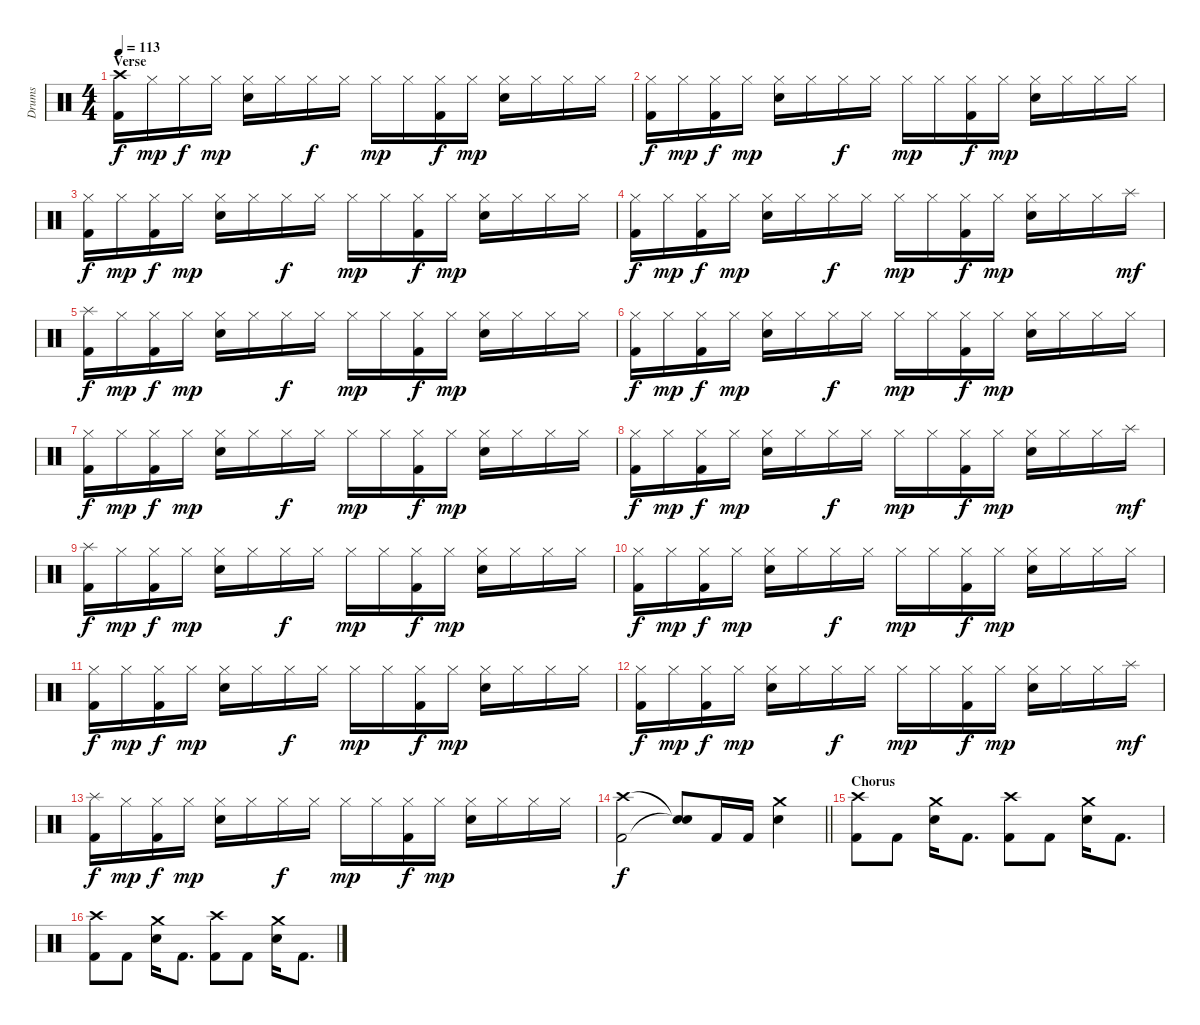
\track ("Drums" "Drums") {instrument percussion}
\staff {score}
\articulation defaults
\ts (4 4)
\section ("" "Verse")
\tempo 113
\clef neutral
\ks c
("Kick (hit) 2" "Crash high (hit)").16{dy f} "Hi-Hat (closed)".16{dy mp} "Hi-Hat (closed)".16{dy f} "Hi-Hat (closed)".16{dy mp} ("Hi-Hat (closed)" "Electric Snare (hit)").16 "Hi-Hat (closed)".16 "Hi-Hat (closed)".16{dy f} "Hi-Hat (closed)".16 "Hi-Hat (closed)".16{dy mp} "Hi-Hat (closed)".16 ("Kick (hit) 2" "Hi-Hat (closed)").16{dy f} "Hi-Hat (closed)".16{dy mp} ("Hi-Hat (closed)" "Electric Snare (hit)").16 "Hi-Hat (closed)".16 "Hi-Hat (closed)".16 "Hi-Hat (closed)".16 |
("Kick (hit) 2" "Hi-Hat (closed)").16{dy f} "Hi-Hat (closed)".16{dy mp} ("Kick (hit) 2" "Hi-Hat (closed)").16{dy f} "Hi-Hat (closed)".16{dy mp} ("Hi-Hat (closed)" "Electric Snare (hit)").16 "Hi-Hat (closed)".16 "Hi-Hat (closed)".16{dy f} "Hi-Hat (closed)".16 "Hi-Hat (closed)".16{dy mp} "Hi-Hat (closed)".16 ("Kick (hit) 2" "Hi-Hat (closed)").16{dy f} "Hi-Hat (closed)".16{dy mp} ("Hi-Hat (closed)" "Electric Snare (hit)").16 "Hi-Hat (closed)".16 "Hi-Hat (closed)".16 "Hi-Hat (closed)".16 |
("Kick (hit) 2" "Hi-Hat (closed)").16{dy f} "Hi-Hat (closed)".16{dy mp} ("Kick (hit) 2" "Hi-Hat (closed)").16{dy f} "Hi-Hat (closed)".16{dy mp} ("Hi-Hat (closed)" "Electric Snare (hit)").16 "Hi-Hat (closed)".16 "Hi-Hat (closed)".16{dy f} "Hi-Hat (closed)".16 "Hi-Hat (closed)".16{dy mp} "Hi-Hat (closed)".16 ("Kick (hit) 2" "Hi-Hat (closed)").16{dy f} "Hi-Hat (closed)".16{dy mp} ("Hi-Hat (closed)" "Electric Snare (hit)").16 "Hi-Hat (closed)".16 "Hi-Hat (closed)".16 "Hi-Hat (closed)".16 |
("Kick (hit) 2" "Hi-Hat (closed)").16{dy f} "Hi-Hat (closed)".16{dy mp} ("Kick (hit) 2" "Hi-Hat (closed)").16{dy f} "Hi-Hat (closed)".16{dy mp} ("Hi-Hat (closed)" "Electric Snare (hit)").16 "Hi-Hat (closed)".16 "Hi-Hat (closed)".16{dy f} "Hi-Hat (closed)".16 "Hi-Hat (closed)".16{dy mp} "Hi-Hat (closed)".16 ("Kick (hit) 2" "Hi-Hat (closed)").16{dy f} "Hi-Hat (closed)".16{dy mp} ("Hi-Hat (closed)" "Electric Snare (hit)").16 "Hi-Hat (closed)".16 "Hi-Hat (closed)".16 "Splash (hit)".16{dy mf} |
("Kick (hit) 2" "Splash (hit)").16{dy f} "Hi-Hat (closed)".16{dy mp} ("Kick (hit) 2" "Hi-Hat (closed)").16{dy f} "Hi-Hat (closed)".16{dy mp} ("Hi-Hat (closed)" "Electric Snare (hit)").16 "Hi-Hat (closed)".16 "Hi-Hat (closed)".16{dy f} "Hi-Hat (closed)".16 "Hi-Hat (closed)".16{dy mp} "Hi-Hat (closed)".16 ("Kick (hit) 2" "Hi-Hat (closed)").16{dy f} "Hi-Hat (closed)".16{dy mp} ("Hi-Hat (closed)" "Electric Snare (hit)").16 "Hi-Hat (closed)".16 "Hi-Hat (closed)".16 "Hi-Hat (closed)".16 |
("Kick (hit) 2" "Hi-Hat (closed)").16{dy f} "Hi-Hat (closed)".16{dy mp} ("Kick (hit) 2" "Hi-Hat (closed)").16{dy f} "Hi-Hat (closed)".16{dy mp} ("Hi-Hat (closed)" "Electric Snare (hit)").16 "Hi-Hat (closed)".16 "Hi-Hat (closed)".16{dy f} "Hi-Hat (closed)".16 "Hi-Hat (closed)".16{dy mp} "Hi-Hat (closed)".16 ("Kick (hit) 2" "Hi-Hat (closed)").16{dy f} "Hi-Hat (closed)".16{dy mp} ("Hi-Hat (closed)" "Electric Snare (hit)").16 "Hi-Hat (closed)".16 "Hi-Hat (closed)".16 "Hi-Hat (closed)".16 |
("Kick (hit) 2" "Hi-Hat (closed)").16{dy f} "Hi-Hat (closed)".16{dy mp} ("Kick (hit) 2" "Hi-Hat (closed)").16{dy f} "Hi-Hat (closed)".16{dy mp} ("Hi-Hat (closed)" "Electric Snare (hit)").16 "Hi-Hat (closed)".16 "Hi-Hat (closed)".16{dy f} "Hi-Hat (closed)".16 "Hi-Hat (closed)".16{dy mp} "Hi-Hat (closed)".16 ("Kick (hit) 2" "Hi-Hat (closed)").16{dy f} "Hi-Hat (closed)".16{dy mp} ("Hi-Hat (closed)" "Electric Snare (hit)").16 "Hi-Hat (closed)".16 "Hi-Hat (closed)".16 "Hi-Hat (closed)".16 |
("Kick (hit) 2" "Hi-Hat (closed)").16{dy f} "Hi-Hat (closed)".16{dy mp} ("Kick (hit) 2" "Hi-Hat (closed)").16{dy f} "Hi-Hat (closed)".16{dy mp} ("Hi-Hat (closed)" "Electric Snare (hit)").16 "Hi-Hat (closed)".16 "Hi-Hat (closed)".16{dy f} "Hi-Hat (closed)".16 "Hi-Hat (closed)".16{dy mp} "Hi-Hat (closed)".16 ("Kick (hit) 2" "Hi-Hat (closed)").16{dy f} "Hi-Hat (closed)".16{dy mp} ("Hi-Hat (closed)" "Electric Snare (hit)").16 "Hi-Hat (closed)".16 "Hi-Hat (closed)".16 "Splash (hit)".16{dy mf} |
("Kick (hit) 2" "Splash (hit)").16{dy f} "Hi-Hat (closed)".16{dy mp} ("Kick (hit) 2" "Hi-Hat (closed)").16{dy f} "Hi-Hat (closed)".16{dy mp} ("Hi-Hat (closed)" "Electric Snare (hit)").16 "Hi-Hat (closed)".16 "Hi-Hat (closed)".16{dy f} "Hi-Hat (closed)".16 "Hi-Hat (closed)".16{dy mp} "Hi-Hat (closed)".16 ("Kick (hit) 2" "Hi-Hat (closed)").16{dy f} "Hi-Hat (closed)".16{dy mp} ("Hi-Hat (closed)" "Electric Snare (hit)").16 "Hi-Hat (closed)".16 "Hi-Hat (closed)".16 "Hi-Hat (closed)".16 |
("Kick (hit) 2" "Hi-Hat (closed)").16{dy f} "Hi-Hat (closed)".16{dy mp} ("Kick (hit) 2" "Hi-Hat (closed)").16{dy f} "Hi-Hat (closed)".16{dy mp} ("Hi-Hat (closed)" "Electric Snare (hit)").16 "Hi-Hat (closed)".16 "Hi-Hat (closed)".16{dy f} "Hi-Hat (closed)".16 "Hi-Hat (closed)".16{dy mp} "Hi-Hat (closed)".16 ("Kick (hit) 2" "Hi-Hat (closed)").16{dy f} "Hi-Hat (closed)".16{dy mp} ("Hi-Hat (closed)" "Electric Snare (hit)").16 "Hi-Hat (closed)".16 "Hi-Hat (closed)".16 "Hi-Hat (closed)".16 |
("Kick (hit) 2" "Hi-Hat (closed)").16{dy f} "Hi-Hat (closed)".16{dy mp} ("Kick (hit) 2" "Hi-Hat (closed)").16{dy f} "Hi-Hat (closed)".16{dy mp} ("Hi-Hat (closed)" "Electric Snare (hit)").16 "Hi-Hat (closed)".16 "Hi-Hat (closed)".16{dy f} "Hi-Hat (closed)".16 "Hi-Hat (closed)".16{dy mp} "Hi-Hat (closed)".16 ("Kick (hit) 2" "Hi-Hat (closed)").16{dy f} "Hi-Hat (closed)".16{dy mp} ("Hi-Hat (closed)" "Electric Snare (hit)").16 "Hi-Hat (closed)".16 "Hi-Hat (closed)".16 "Hi-Hat (closed)".16 |
("Kick (hit) 2" "Hi-Hat (closed)").16{dy f} "Hi-Hat (closed)".16{dy mp} ("Kick (hit) 2" "Hi-Hat (closed)").16{dy f} "Hi-Hat (closed)".16{dy mp} ("Hi-Hat (closed)" "Electric Snare (hit)").16 "Hi-Hat (closed)".16 "Hi-Hat (closed)".16{dy f} "Hi-Hat (closed)".16 "Hi-Hat (closed)".16{dy mp} "Hi-Hat (closed)".16 ("Kick (hit) 2" "Hi-Hat (closed)").16{dy f} "Hi-Hat (closed)".16{dy mp} ("Hi-Hat (closed)" "Electric Snare (hit)").16 "Hi-Hat (closed)".16 "Hi-Hat (closed)".16 "Splash (hit)".16{dy mf} |
("Kick (hit) 2" "Splash (hit)").16{dy f} "Hi-Hat (closed)".16{dy mp} ("Kick (hit) 2" "Hi-Hat (closed)").16{dy f} "Hi-Hat (closed)".16{dy mp} ("Hi-Hat (closed)" "Electric Snare (hit)").16 "Hi-Hat (closed)".16 "Hi-Hat (closed)".16{dy f} "Hi-Hat (closed)".16 "Hi-Hat (closed)".16{dy mp} "Hi-Hat (closed)".16 ("Kick (hit) 2" "Hi-Hat (closed)").16{dy f} "Hi-Hat (closed)".16{dy mp} ("Hi-Hat (closed)" "Electric Snare (hit)").16 "Hi-Hat (closed)".16 "Hi-Hat (closed)".16 "Hi-Hat (closed)".16 |
\barLineRight lightlight
("Kick (hit) 2" "Crash high (hit)").2{dy f} ("Snare (hit)"{t} "Snare (hit)"{t}).8 "Kick (hit) 2".16 "Kick (hit) 2".16 ("Crash medium (hit)" "Electric Snare (hit)").4 |
\section ("" "Chorus")
("Kick (hit) 2" "Crash high (hit)").8 "Kick (hit) 2".8 ("Crash medium (hit)" "Electric Snare (hit)").16 "Kick (hit) 2".8{d} ("Kick (hit) 2" "Crash high (hit)").8 "Kick (hit) 2".8 ("Crash medium (hit)" "Electric Snare (hit)").16 "Kick (hit) 2".8{d} |
("Kick (hit) 2" "Crash high (hit)").8 "Kick (hit) 2".8 ("Crash medium (hit)" "Electric Snare (hit)").16 "Kick (hit) 2".8{d} ("Kick (hit) 2" "Crash high (hit)").8 "Kick (hit) 2".8 ("Crash medium (hit)" "Electric Snare (hit)").16 "Kick (hit) 2".8{d}
